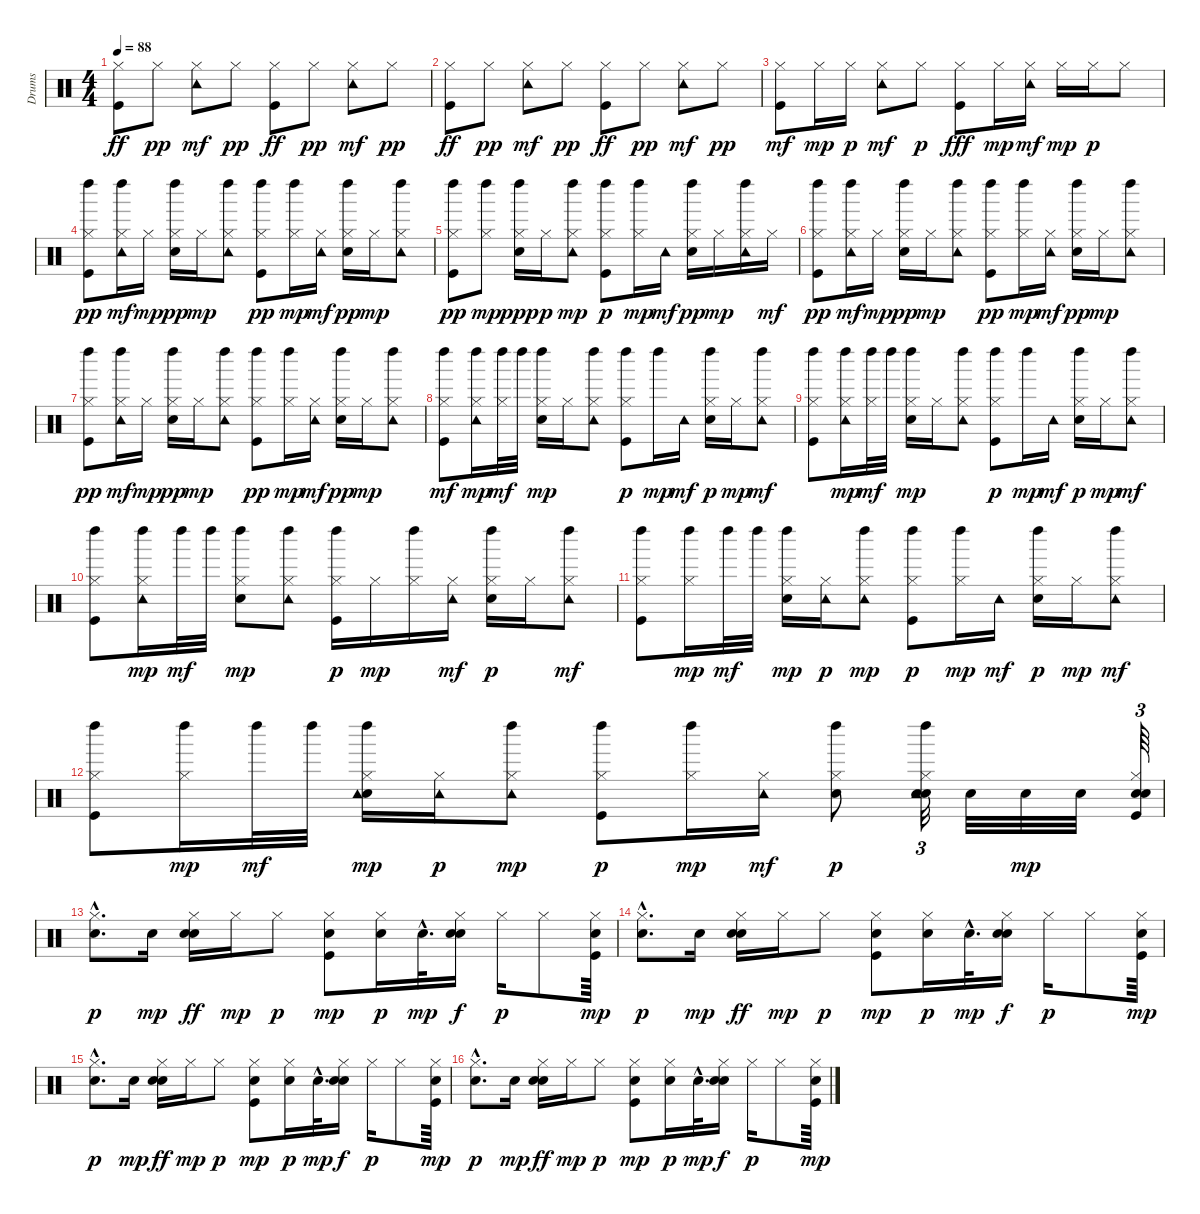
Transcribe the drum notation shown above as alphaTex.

\track ("Drums" "Drums") {instrument percussion}
\staff {score}
\articulation defaults
\ts (4 4)
\tempo 88
\clef neutral
\ks c
("Kick (hit)" "Hi-Hat (closed)").8{dy ff} "Hi-Hat (closed)".8{dy pp} ("Hi-Hat (closed)" "Tambourine (hit)").8{dy mf} "Hi-Hat (closed)".8{dy pp} ("Kick (hit)" "Hi-Hat (closed)").8{dy ff} "Hi-Hat (closed)".8{dy pp} ("Hi-Hat (closed)" "Tambourine (hit)").8{dy mf} "Hi-Hat (closed)".8{dy pp} |
("Kick (hit)" "Hi-Hat (closed)").8{dy ff} "Hi-Hat (closed)".8{dy pp} ("Hi-Hat (closed)" "Tambourine (hit)").8{dy mf} "Hi-Hat (closed)".8{dy pp} ("Kick (hit)" "Hi-Hat (closed)").8{dy ff} "Hi-Hat (closed)".8{dy pp} ("Hi-Hat (closed)" "Tambourine (hit)").8{dy mf} "Hi-Hat (closed)".8{dy pp} |
("Kick (hit)" "Hi-Hat (closed)").8{dy mf} "Hi-Hat (closed)".16{dy mp} "Hi-Hat (closed)".16{dy p} ("Hi-Hat (closed)" "Tambourine (hit)").8{dy mf} "Hi-Hat (closed)".8{dy p} ("Kick (hit)" "Hi-Hat (closed)").8{dy fff} "Hi-Hat (closed)".16{dy mp} ("Hi-Hat (closed)" "Tambourine (hit)").16{dy mf} "Hi-Hat (closed)".16{dy mp} "Hi-Hat (closed)".16{dy p} "Hi-Hat (closed)".8 |
("Kick (hit)" "Hi-Hat (closed)" "Left Maraca (hit)").8{dy pp} ("Hi-Hat (closed)" "Tambourine (hit)" "Left Maraca (hit)").16{dy mf} "Hi-Hat (closed)".16{dy mp} ("Electric Snare (hit)" "Hi-Hat (closed)" "Left Maraca (hit)").16{dy pp} "Hi-Hat (closed)".16{dy mp} ("Hi-Hat (closed)" "Tambourine (hit)" "Left Maraca (hit)").8 ("Kick (hit)" "Hi-Hat (closed)" "Left Maraca (hit)").8{dy pp} ("Hi-Hat (closed)" "Left Maraca (hit)").16{dy mp} ("Hi-Hat (closed)" "Tambourine (hit)").16{dy mf} ("Electric Snare (hit)" "Hi-Hat (closed)" "Left Maraca (hit)").16{dy pp} "Hi-Hat (closed)".16{dy mp} ("Hi-Hat (closed)" "Tambourine (hit)" "Left Maraca (hit)").8 |
("Kick (hit)" "Hi-Hat (closed)" "Left Maraca (hit)").8{dy pp} ("Hi-Hat (closed)" "Left Maraca (hit)").8{dy mp} ("Electric Snare (hit)" "Hi-Hat (closed)" "Left Maraca (hit)").16{dy ppp} "Hi-Hat (closed)".16{dy p} ("Hi-Hat (closed)" "Left Maraca (hit)" "Tambourine (hit)").8{dy mp} ("Kick (hit)" "Hi-Hat (closed)" "Left Maraca (hit)").8{dy p} ("Hi-Hat (closed)" "Left Maraca (hit)").16{dy mp} "Tambourine (hit)".16{dy mf} ("Electric Snare (hit)" "Hi-Hat (closed)" "Left Maraca (hit)").16{dy pp} "Hi-Hat (closed)".16{dy mp} ("Hi-Hat (closed)" "Tambourine (hit)" "Left Maraca (hit)").16 "Hi-Hat (closed)".16{dy mf} |
("Kick (hit)" "Hi-Hat (closed)" "Left Maraca (hit)").8{dy pp} ("Hi-Hat (closed)" "Tambourine (hit)" "Left Maraca (hit)").16{dy mf} "Hi-Hat (closed)".16{dy mp} ("Electric Snare (hit)" "Hi-Hat (closed)" "Left Maraca (hit)").16{dy pp} "Hi-Hat (closed)".16{dy mp} ("Hi-Hat (closed)" "Tambourine (hit)" "Left Maraca (hit)").8 ("Kick (hit)" "Hi-Hat (closed)" "Left Maraca (hit)").8{dy pp} ("Hi-Hat (closed)" "Left Maraca (hit)").16{dy mp} ("Hi-Hat (closed)" "Tambourine (hit)").16{dy mf} ("Electric Snare (hit)" "Hi-Hat (closed)" "Left Maraca (hit)").16{dy pp} "Hi-Hat (closed)".16{dy mp} ("Hi-Hat (closed)" "Tambourine (hit)" "Left Maraca (hit)").8 |
("Kick (hit)" "Hi-Hat (closed)" "Left Maraca (hit)").8{dy pp} ("Hi-Hat (closed)" "Tambourine (hit)" "Left Maraca (hit)").16{dy mf} "Hi-Hat (closed)".16{dy mp} ("Electric Snare (hit)" "Hi-Hat (closed)" "Left Maraca (hit)").16{dy pp} "Hi-Hat (closed)".16{dy mp} ("Hi-Hat (closed)" "Tambourine (hit)" "Left Maraca (hit)").8 ("Kick (hit)" "Hi-Hat (closed)" "Left Maraca (hit)").8{dy pp} ("Hi-Hat (closed)" "Left Maraca (hit)").16{dy mp} ("Hi-Hat (closed)" "Tambourine (hit)").16{dy mf} ("Electric Snare (hit)" "Hi-Hat (closed)" "Left Maraca (hit)").16{dy pp} "Hi-Hat (closed)".16{dy mp} ("Hi-Hat (closed)" "Tambourine (hit)" "Left Maraca (hit)").8 |
("Kick (hit)" "Hi-Hat (closed)" "Left Maraca (hit)").8{dy mf} ("Hi-Hat (closed)" "Tambourine (hit)" "Left Maraca (hit)").16{dy mp} ("Hi-Hat (closed)" "Left Maraca (hit)").32{dy mf} "Left Maraca (hit)".32 ("Electric Snare (hit)" "Hi-Hat (closed)" "Left Maraca (hit)").16{dy mp} "Hi-Hat (closed)".16 ("Hi-Hat (closed)" "Tambourine (hit)" "Left Maraca (hit)").8 ("Kick (hit)" "Hi-Hat (closed)" "Left Maraca (hit)").8{dy p} "Left Maraca (hit)".16{dy mp} "Tambourine (hit)".16{dy mf} ("Electric Snare (hit)" "Hi-Hat (closed)" "Left Maraca (hit)").16{dy p} "Hi-Hat (closed)".16{dy mp} ("Hi-Hat (closed)" "Tambourine (hit)" "Left Maraca (hit)").8{dy mf} |
("Kick (hit)" "Hi-Hat (closed)" "Left Maraca (hit)").8 ("Hi-Hat (closed)" "Tambourine (hit)" "Left Maraca (hit)").16{dy mp} ("Hi-Hat (closed)" "Left Maraca (hit)").32{dy mf} "Left Maraca (hit)".32 ("Electric Snare (hit)" "Hi-Hat (closed)" "Left Maraca (hit)").16{dy mp} "Hi-Hat (closed)".16 ("Hi-Hat (closed)" "Tambourine (hit)" "Left Maraca (hit)").8 ("Kick (hit)" "Hi-Hat (closed)" "Left Maraca (hit)").8{dy p} "Left Maraca (hit)".16{dy mp} "Tambourine (hit)".16{dy mf} ("Electric Snare (hit)" "Hi-Hat (closed)" "Left Maraca (hit)").16{dy p} "Hi-Hat (closed)".16{dy mp} ("Hi-Hat (closed)" "Tambourine (hit)" "Left Maraca (hit)").8{dy mf} |
("Kick (hit)" "Hi-Hat (closed)" "Left Maraca (hit)").8 ("Hi-Hat (closed)" "Left Maraca (hit)" "Tambourine (hit)").16{dy mp} "Left Maraca (hit)".32{dy mf} "Left Maraca (hit)".32 ("Electric Snare (hit)" "Hi-Hat (closed)" "Left Maraca (hit)").8{dy mp} ("Hi-Hat (closed)" "Tambourine (hit)" "Left Maraca (hit)").8 ("Kick (hit)" "Hi-Hat (closed)" "Left Maraca (hit)").16{dy p} "Hi-Hat (closed)".16{dy mp} ("Hi-Hat (closed)" "Left Maraca (hit)").16 ("Hi-Hat (closed)" "Tambourine (hit)").16{dy mf} ("Electric Snare (hit)" "Hi-Hat (closed)" "Left Maraca (hit)").16{dy p} "Hi-Hat (closed)".16 ("Hi-Hat (closed)" "Tambourine (hit)" "Left Maraca (hit)").8{dy mf} |
("Kick (hit)" "Hi-Hat (closed)" "Left Maraca (hit)").8 ("Hi-Hat (closed)" "Left Maraca (hit)").16{dy mp} "Left Maraca (hit)".32{dy mf} "Left Maraca (hit)".32 ("Electric Snare (hit)" "Hi-Hat (closed)" "Left Maraca (hit)").16{dy mp} ("Hi-Hat (closed)" "Tambourine (hit)").16{dy p} ("Hi-Hat (closed)" "Tambourine (hit)" "Left Maraca (hit)").8{dy mp} ("Kick (hit)" "Hi-Hat (closed)" "Left Maraca (hit)").8{dy p} ("Hi-Hat (closed)" "Left Maraca (hit)").16{dy mp} "Tambourine (hit)".16{dy mf} ("Electric Snare (hit)" "Hi-Hat (closed)" "Left Maraca (hit)").16{dy p} "Hi-Hat (closed)".16{dy mp} ("Hi-Hat (closed)" "Tambourine (hit)" "Left Maraca (hit)").8{dy mf} |
("Kick (hit)" "Hi-Hat (closed)" "Left Maraca (hit)").8 ("Hi-Hat (closed)" "Left Maraca (hit)").16{dy mp} "Left Maraca (hit)".32{dy mf} "Left Maraca (hit)".32 ("Electric Snare (hit)" "Hi-Hat (closed)" "Tambourine (hit)" "Left Maraca (hit)").16{dy mp} ("Hi-Hat (closed)" "Tambourine (hit)").16{dy p} ("Hi-Hat (closed)" "Tambourine (hit)" "Left Maraca (hit)").8{dy mp} ("Kick (hit)" "Hi-Hat (closed)" "Left Maraca (hit)").8{dy p} ("Hi-Hat (closed)" "Left Maraca (hit)").16{dy mp} ("Hi-Hat (closed)" "Tambourine (hit)").16{dy mf} ("Electric Snare (hit)" "Hi-Hat (closed)" "Left Maraca (hit)").8{dy p} ("Electric Snare (hit)" "Hi-Hat (closed)" "Tambourine (hit)" "Left Maraca (hit)" "Electric Snare (hit)").32{tu (3 2)} "Electric Snare (hit)".32 "Electric Snare (hit)".32{dy mp} "Electric Snare (hit)".32 ("Electric Snare (hit)" "Kick (hit)" "Hi-Hat (closed)" "Snare (hit) 2").64{tu (3 2)} |
("Hi-Hat (closed)" "Snare (hit) 2"{hac}).8{d dy p} "Snare (hit) 2".16{dy mp} ("Electric Snare (hit)" "Hi-Hat (closed)" "Hand Clap (hit)").16{dy ff} "Hi-Hat (closed)".16{dy mp} "Hi-Hat (closed)".8{dy p} ("Kick (hit)" "Hi-Hat (closed)" "Snare (hit) 2").8{dy mp} ("Hi-Hat (closed)" "Snare (hit) 2").16{dy p} "Snare (hit) 2"{hac}.32{d dy mp} ("Electric Snare (hit)" "Hi-Hat (closed)" "Hand Clap (hit)").16{dy f} "Hi-Hat (closed)".16{dy p} "Hi-Hat (closed)".8 ("Kick (hit)" "Hi-Hat (closed)" "Snare (hit) 2").64{dy mp} |
("Hi-Hat (closed)" "Snare (hit) 2"{hac}).8{d dy p} "Snare (hit) 2".16{dy mp} ("Electric Snare (hit)" "Hi-Hat (closed)" "Hand Clap (hit)").16{dy ff} "Hi-Hat (closed)".16{dy mp} "Hi-Hat (closed)".8{dy p} ("Kick (hit)" "Hi-Hat (closed)" "Snare (hit) 2").8{dy mp} ("Hi-Hat (closed)" "Snare (hit) 2").16{dy p} "Snare (hit) 2"{hac}.32{d dy mp} ("Electric Snare (hit)" "Hi-Hat (closed)" "Hand Clap (hit)").16{dy f} "Hi-Hat (closed)".16{dy p} "Hi-Hat (closed)".8 ("Kick (hit)" "Hi-Hat (closed)" "Snare (hit) 2").64{dy mp} |
("Hi-Hat (closed)" "Snare (hit) 2"{hac}).8{d dy p} "Snare (hit) 2".16{dy mp} ("Electric Snare (hit)" "Hi-Hat (closed)" "Hand Clap (hit)").16{dy ff} "Hi-Hat (closed)".16{dy mp} "Hi-Hat (closed)".8{dy p} ("Kick (hit)" "Hi-Hat (closed)" "Snare (hit) 2").8{dy mp} ("Hi-Hat (closed)" "Snare (hit) 2").16{dy p} "Snare (hit) 2"{hac}.32{d dy mp} ("Electric Snare (hit)" "Hi-Hat (closed)" "Hand Clap (hit)").16{dy f} "Hi-Hat (closed)".16{dy p} "Hi-Hat (closed)".8 ("Kick (hit)" "Hi-Hat (closed)" "Snare (hit) 2").64{dy mp} |
("Hi-Hat (closed)" "Snare (hit) 2"{hac}).8{d dy p} "Snare (hit) 2".16{dy mp} ("Electric Snare (hit)" "Hi-Hat (closed)" "Hand Clap (hit)").16{dy ff} "Hi-Hat (closed)".16{dy mp} "Hi-Hat (closed)".8{dy p} ("Kick (hit)" "Hi-Hat (closed)" "Snare (hit) 2").8{dy mp} ("Hi-Hat (closed)" "Snare (hit) 2").16{dy p} "Snare (hit) 2"{hac}.32{d dy mp} ("Electric Snare (hit)" "Hi-Hat (closed)" "Hand Clap (hit)").16{dy f} "Hi-Hat (closed)".16{dy p} "Hi-Hat (closed)".8 ("Kick (hit)" "Hi-Hat (closed)" "Snare (hit) 2").64{dy mp}
